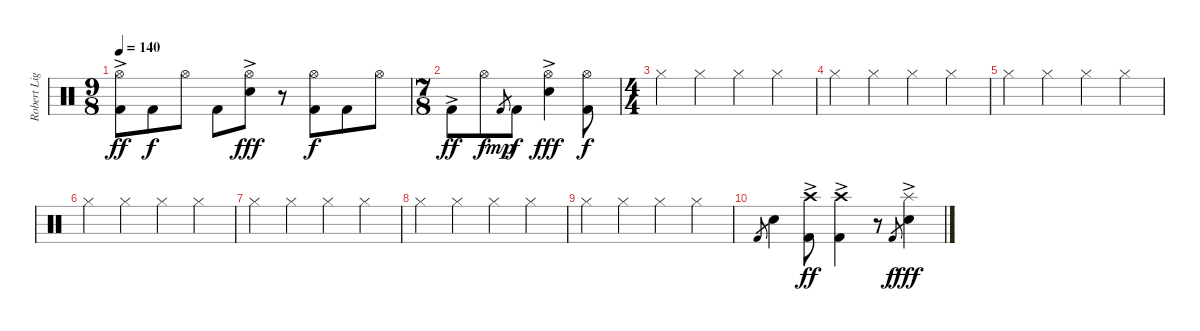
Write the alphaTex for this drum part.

\track ("Robert Ligiewicz (Perkusja)" "Robert Lig") {instrument percussion}
\staff {score}
\articulation defaults
\ts (9 8)
\tempo 140
\clef neutral
\ks c
("Hi-Hat (open)" "Kick (hit) 2"{ac}).8{dy ff} "Kick (hit) 2".8{dy f} "Hi-Hat (open)".8 "Kick (hit) 2".8 ("Hi-Hat (open)" "Electric Snare (hit)"{ac}).8{dy fff} r.8 ("Hi-Hat (open)" "Kick (hit) 2").8{dy f} "Kick (hit) 2".8 "Hi-Hat (open)".8 |
\ts (7 8)
"Kick (hit) 2"{ac}.8{dy ff} "Hi-Hat (open)".8{dy f} "Kick (hit) 2".8{gr dy mp} "Kick (hit) 2".8{dy f} ("Hi-Hat (open)" "Electric Snare (hit)"{ac}).4{dy fff} ("Hi-Hat (open)" "Kick (hit) 2").8{dy f} |
\ts (4 4)
"Hi-Hat (closed)".4 "Hi-Hat (closed)".4 "Hi-Hat (closed)".4 "Hi-Hat (closed)".4 |
"Hi-Hat (closed)".4 "Hi-Hat (closed)".4 "Hi-Hat (closed)".4 "Hi-Hat (closed)".4 |
"Hi-Hat (closed)".4 "Hi-Hat (closed)".4 "Hi-Hat (closed)".4 "Hi-Hat (closed)".4 |
"Hi-Hat (closed)".4 "Hi-Hat (closed)".4 "Hi-Hat (closed)".4 "Hi-Hat (closed)".4 |
"Hi-Hat (closed)".4 "Hi-Hat (closed)".4 "Hi-Hat (closed)".4 "Hi-Hat (closed)".4 |
"Hi-Hat (closed)".4 "Hi-Hat (closed)".4 "Hi-Hat (closed)".4 "Hi-Hat (closed)".4 |
"Hi-Hat (closed)".4 "Hi-Hat (closed)".4 "Hi-Hat (closed)".4 "Hi-Hat (closed)".4 |
"Kick (hit) 2".8{gr} "Electric Snare (hit)".4 ("Crash high (hit)" "Kick (hit) 2"{ac}).8{dy ff} ("Crash high (hit)" "Kick (hit) 2"{ac}).4 r.8 "Kick (hit) 2".8{gr dy f} ("Splash (hit)" "Electric Snare (hit)"{ac}).4{dy fff}
